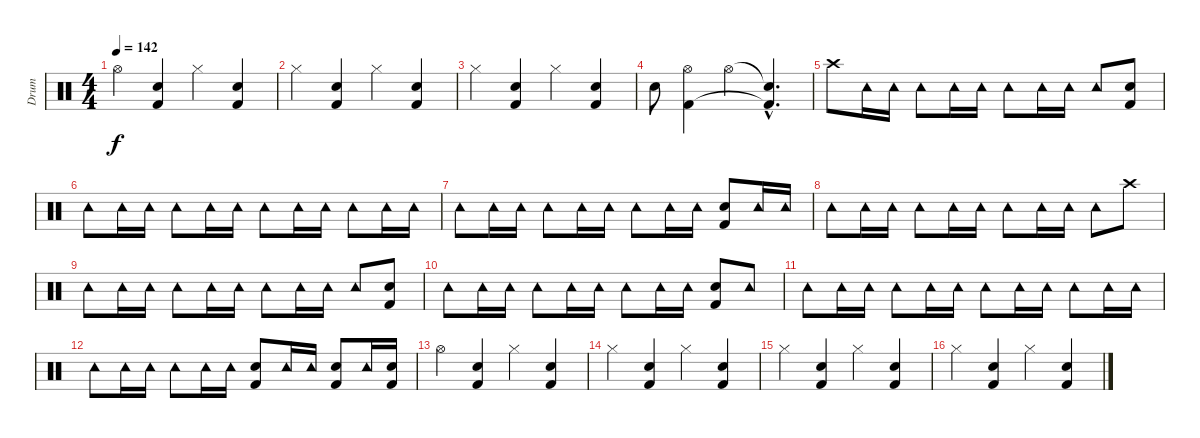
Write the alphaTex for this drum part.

\track ("Drum" "Drum") {instrument percussion}
\staff {score}
\articulation defaults
\ts (4 4)
\tempo 142
\clef neutral
\ks c "Hi-Hat (open)".4{dy f}
("Electric Snare (hit)" "Kick (hit) 2").4 "Hi-Hat (closed)".4 ("Electric Snare (hit)" "Kick (hit) 2").4 |
"Hi-Hat (closed)".4 ("Electric Snare (hit)" "Kick (hit) 2").4 "Hi-Hat (closed)".4 ("Electric Snare (hit)" "Kick (hit) 2").4 |
"Hi-Hat (closed)".4 ("Electric Snare (hit)" "Kick (hit) 2").4 "Hi-Hat (closed)".4 ("Electric Snare (hit)" "Kick (hit) 2").4 |
"Electric Snare (hit)".8 ("Hi-Hat (open)" "Kick (hit) 2").4 "Hi-Hat (open)".4 ("Electric Snare (hit)"{hac t} "Kick (hit) 2"{hac t}).4{d} |
"Crash high (hit)".8 "Tambourine (hit)".16 "Tambourine (hit)".16 "Tambourine (hit)".8 "Tambourine (hit)".16 "Tambourine (hit)".16 "Tambourine (hit)".8 "Tambourine (hit)".16 "Tambourine (hit)".16 "Tambourine (hit)".8 ("Electric Snare (hit)" "Kick (hit) 2").8 |
"Tambourine (hit)".8 "Tambourine (hit)".16 "Tambourine (hit)".16 "Tambourine (hit)".8 "Tambourine (hit)".16 "Tambourine (hit)".16 "Tambourine (hit)".8 "Tambourine (hit)".16 "Tambourine (hit)".16 "Tambourine (hit)".8 "Tambourine (hit)".16 "Tambourine (hit)".16 |
"Tambourine (hit)".8 "Tambourine (hit)".16 "Tambourine (hit)".16 "Tambourine (hit)".8 "Tambourine (hit)".16 "Tambourine (hit)".16 "Tambourine (hit)".8 "Tambourine (hit)".16 "Tambourine (hit)".16 ("Electric Snare (hit)" "Kick (hit) 2").8 "Tambourine (hit)".16 "Tambourine (hit)".16 |
"Tambourine (hit)".8 "Tambourine (hit)".16 "Tambourine (hit)".16 "Tambourine (hit)".8 "Tambourine (hit)".16 "Tambourine (hit)".16 "Tambourine (hit)".8 "Tambourine (hit)".16 "Tambourine (hit)".16 "Tambourine (hit)".8 "Crash high (hit)".8 |
"Tambourine (hit)".8 "Tambourine (hit)".16 "Tambourine (hit)".16 "Tambourine (hit)".8 "Tambourine (hit)".16 "Tambourine (hit)".16 "Tambourine (hit)".8 "Tambourine (hit)".16 "Tambourine (hit)".16 "Tambourine (hit)".8 ("Electric Snare (hit)" "Kick (hit) 2").8 |
"Tambourine (hit)".8 "Tambourine (hit)".16 "Tambourine (hit)".16 "Tambourine (hit)".8 "Tambourine (hit)".16 "Tambourine (hit)".16 "Tambourine (hit)".8 "Tambourine (hit)".16 "Tambourine (hit)".16 ("Electric Snare (hit)" "Kick (hit) 2").8 "Tambourine (hit)".8 |
"Tambourine (hit)".8 "Tambourine (hit)".16 "Tambourine (hit)".16 "Tambourine (hit)".8 "Tambourine (hit)".16 "Tambourine (hit)".16 "Tambourine (hit)".8 "Tambourine (hit)".16 "Tambourine (hit)".16 "Tambourine (hit)".8 "Tambourine (hit)".16 "Tambourine (hit)".16 |
"Tambourine (hit)".8 "Tambourine (hit)".16 "Tambourine (hit)".16 "Tambourine (hit)".8 "Tambourine (hit)".16 "Tambourine (hit)".16 ("Electric Snare (hit)" "Kick (hit) 2").8 "Tambourine (hit)".16 "Tambourine (hit)".16 ("Electric Snare (hit)" "Kick (hit) 2").8 "Tambourine (hit)".16 ("Electric Snare (hit)" "Kick (hit) 2").16 |
"Hi-Hat (open)".4 ("Electric Snare (hit)" "Kick (hit) 2").4 "Hi-Hat (closed)".4 ("Electric Snare (hit)" "Kick (hit) 2").4 |
"Hi-Hat (closed)".4 ("Electric Snare (hit)" "Kick (hit) 2").4 "Hi-Hat (closed)".4 ("Electric Snare (hit)" "Kick (hit) 2").4 |
"Hi-Hat (closed)".4 ("Electric Snare (hit)" "Kick (hit) 2").4 "Hi-Hat (closed)".4 ("Electric Snare (hit)" "Kick (hit) 2").4 |
"Hi-Hat (closed)".4 ("Electric Snare (hit)" "Kick (hit) 2").4 "Hi-Hat (closed)".4 ("Electric Snare (hit)" "Kick (hit) 2").4
